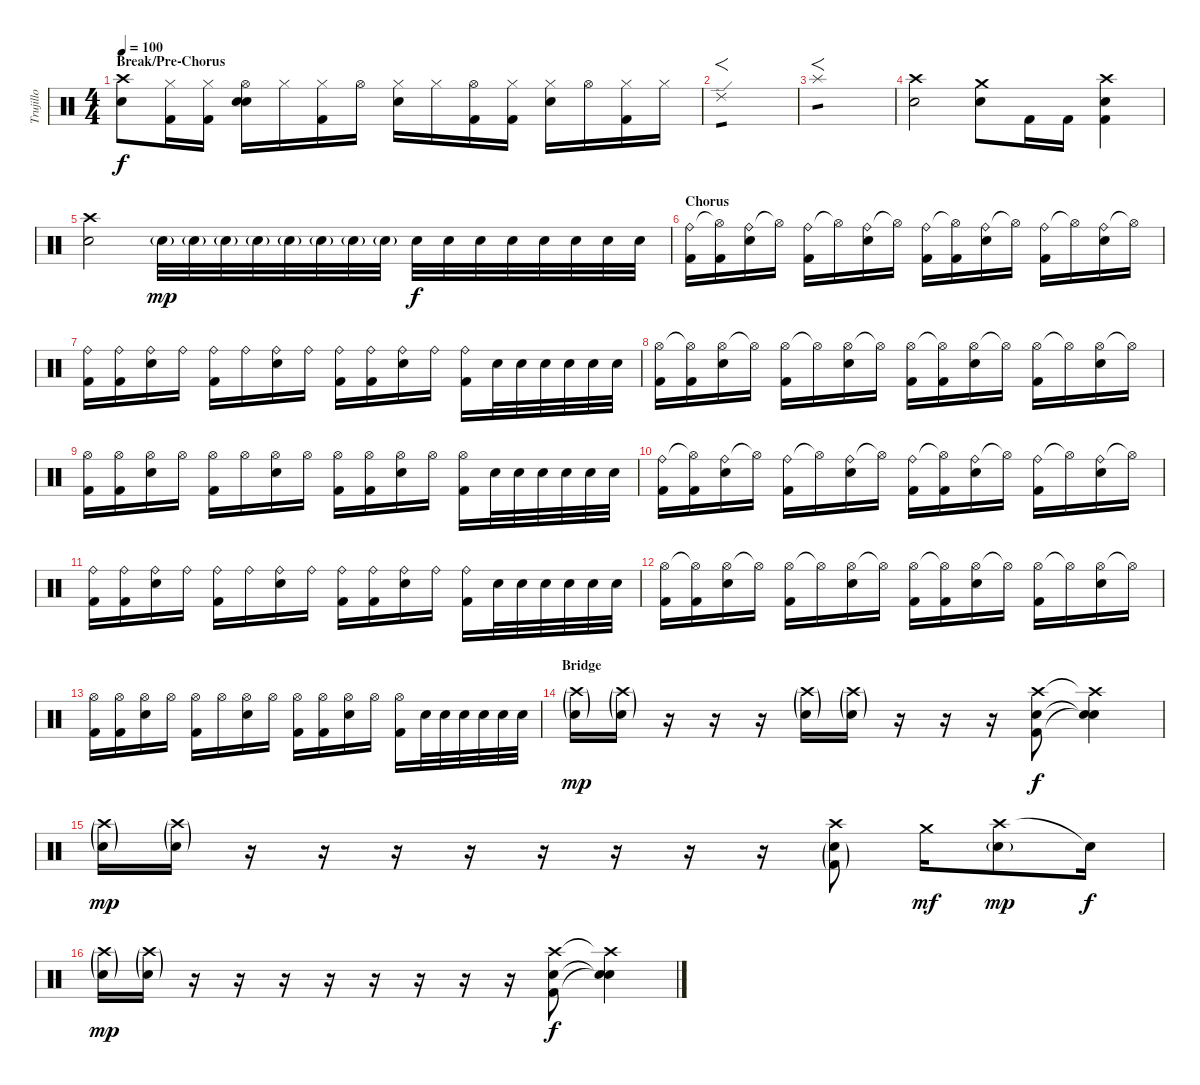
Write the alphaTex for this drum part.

\track ("Trujillo" "Trujillo") {instrument percussion}
\staff {score}
\articulation defaults
\ts (4 4)
\section ("" "Break/Pre-Chorus")
\tempo 100
\clef neutral
\ks c
("Crash high (hit)" "Electric Snare (hit)").8{dy f} ("Hi-Hat (closed)" "Kick (hit) 2").16 ("Hi-Hat (closed)" "Kick (hit) 2").16 ("Hi-Hat (open)" "Electric Snare (hit)" "Electric Snare (hit)").16 "Hi-Hat (closed)".16 ("Hi-Hat (closed)" "Kick (hit) 2").16 "Hi-Hat (open)".16 ("Hi-Hat (closed)" "Electric Snare (hit)").16 "Hi-Hat (closed)".16 ("Hi-Hat (open)" "Kick (hit) 2").16 ("Hi-Hat (closed)" "Kick (hit) 2").16 ("Hi-Hat (closed)" "Electric Snare (hit)").16 "Hi-Hat (open)".16 ("Hi-Hat (closed)" "Kick (hit) 2").16 "Hi-Hat (closed)".16 |
"Ride (edge) 2".1{f tp 1} |
"Splash (hit)".1{f tp 1} |
("Crash high (hit)" "Electric Snare (hit)").2 ("Crash medium (hit)" "Electric Snare (hit)").8 "Kick (hit) 2".16 "Kick (hit) 2".16 ("Crash high (hit)" "Electric Snare (hit)" "Kick (hit) 2").4 |
("Crash high (hit)" "Electric Snare (hit)").2 "Electric Snare (hit)"{g}.32{dy mp} "Electric Snare (hit)"{g}.32 "Electric Snare (hit)"{g}.32 "Electric Snare (hit)"{g}.32 "Electric Snare (hit)"{g}.32 "Electric Snare (hit)"{g}.32 "Electric Snare (hit)"{g}.32 "Electric Snare (hit)"{g}.32 "Electric Snare (hit)".32{dy f} "Electric Snare (hit)".32 "Electric Snare (hit)".32 "Electric Snare (hit)".32 "Electric Snare (hit)".32 "Electric Snare (hit)".32 "Electric Snare (hit)".32 "Electric Snare (hit)".32 |
\section ("" "Chorus")
("Ride (bell)" "Kick (hit) 2").16 ("Hi-Hat (open)"{t} "Kick (hit) 2").16 ("Ride (bell)" "Electric Snare (hit)").16 "Hi-Hat (open)"{t}.16 ("Ride (bell)" "Kick (hit) 2").16 "Hi-Hat (open)"{t}.16 ("Ride (bell)" "Electric Snare (hit)").16 "Hi-Hat (open)"{t}.16 ("Ride (bell)" "Kick (hit) 2").16 ("Hi-Hat (open)"{t} "Kick (hit) 2").16 ("Ride (bell)" "Electric Snare (hit)").16 "Hi-Hat (open)"{t}.16 ("Ride (bell)" "Kick (hit) 2").16 "Hi-Hat (open)"{t}.16 ("Ride (bell)" "Electric Snare (hit)").16 "Hi-Hat (open)"{t}.16 |
("Ride (bell)" "Kick (hit) 2").16 ("Ride (bell)" "Kick (hit) 2").16 ("Ride (bell)" "Electric Snare (hit)").16 "Ride (bell)".16 ("Ride (bell)" "Kick (hit) 2").16 "Ride (bell)".16 ("Ride (bell)" "Electric Snare (hit)").16 "Ride (bell)".16 ("Ride (bell)" "Kick (hit) 2").16 ("Ride (bell)" "Kick (hit) 2").16 ("Ride (bell)" "Electric Snare (hit)").16 "Ride (bell)".16 ("Ride (bell)" "Kick (hit) 2").16 "Electric Snare (hit)".32 "Electric Snare (hit)".32 "Electric Snare (hit)".32 "Electric Snare (hit)".32 "Electric Snare (hit)".32 "Electric Snare (hit)".32 |
("Hi-Hat (open)" "Kick (hit) 2").16 ("Hi-Hat (open)"{t} "Kick (hit) 2").16 ("Hi-Hat (open)" "Electric Snare (hit)").16 "Hi-Hat (open)"{t}.16 ("Hi-Hat (open)" "Kick (hit) 2").16 "Hi-Hat (open)"{t}.16 ("Hi-Hat (open)" "Electric Snare (hit)").16 "Hi-Hat (open)"{t}.16 ("Hi-Hat (open)" "Kick (hit) 2").16 ("Hi-Hat (open)"{t} "Kick (hit) 2").16 ("Hi-Hat (open)" "Electric Snare (hit)").16 "Hi-Hat (open)"{t}.16 ("Hi-Hat (open)" "Kick (hit) 2").16 "Hi-Hat (open)"{t}.16 ("Hi-Hat (open)" "Electric Snare (hit)").16 "Hi-Hat (open)"{t}.16 |
("Hi-Hat (open)" "Kick (hit) 2").16 ("Hi-Hat (open)" "Kick (hit) 2").16 ("Hi-Hat (open)" "Electric Snare (hit)").16 "Hi-Hat (open)".16 ("Hi-Hat (open)" "Kick (hit) 2").16 "Hi-Hat (open)".16 ("Hi-Hat (open)" "Electric Snare (hit)").16 "Hi-Hat (open)".16 ("Hi-Hat (open)" "Kick (hit) 2").16 ("Hi-Hat (open)" "Kick (hit) 2").16 ("Hi-Hat (open)" "Electric Snare (hit)").16 "Hi-Hat (open)".16 ("Hi-Hat (open)" "Kick (hit) 2").16 "Electric Snare (hit)".32 "Electric Snare (hit)".32 "Electric Snare (hit)".32 "Electric Snare (hit)".32 "Electric Snare (hit)".32 "Electric Snare (hit)".32 |
("Ride (bell)" "Kick (hit) 2").16 ("Hi-Hat (open)"{t} "Kick (hit) 2").16 ("Ride (bell)" "Electric Snare (hit)").16 "Hi-Hat (open)"{t}.16 ("Ride (bell)" "Kick (hit) 2").16 "Hi-Hat (open)"{t}.16 ("Ride (bell)" "Electric Snare (hit)").16 "Hi-Hat (open)"{t}.16 ("Ride (bell)" "Kick (hit) 2").16 ("Hi-Hat (open)"{t} "Kick (hit) 2").16 ("Ride (bell)" "Electric Snare (hit)").16 "Hi-Hat (open)"{t}.16 ("Ride (bell)" "Kick (hit) 2").16 "Hi-Hat (open)"{t}.16 ("Ride (bell)" "Electric Snare (hit)").16 "Hi-Hat (open)"{t}.16 |
("Ride (bell)" "Kick (hit) 2").16 ("Ride (bell)" "Kick (hit) 2").16 ("Ride (bell)" "Electric Snare (hit)").16 "Ride (bell)".16 ("Ride (bell)" "Kick (hit) 2").16 "Ride (bell)".16 ("Ride (bell)" "Electric Snare (hit)").16 "Ride (bell)".16 ("Ride (bell)" "Kick (hit) 2").16 ("Ride (bell)" "Kick (hit) 2").16 ("Ride (bell)" "Electric Snare (hit)").16 "Ride (bell)".16 ("Ride (bell)" "Kick (hit) 2").16 "Electric Snare (hit)".32 "Electric Snare (hit)".32 "Electric Snare (hit)".32 "Electric Snare (hit)".32 "Electric Snare (hit)".32 "Electric Snare (hit)".32 |
("Hi-Hat (open)" "Kick (hit) 2").16 ("Hi-Hat (open)"{t} "Kick (hit) 2").16 ("Hi-Hat (open)" "Electric Snare (hit)").16 "Hi-Hat (open)"{t}.16 ("Hi-Hat (open)" "Kick (hit) 2").16 "Hi-Hat (open)"{t}.16 ("Hi-Hat (open)" "Electric Snare (hit)").16 "Hi-Hat (open)"{t}.16 ("Hi-Hat (open)" "Kick (hit) 2").16 ("Hi-Hat (open)"{t} "Kick (hit) 2").16 ("Hi-Hat (open)" "Electric Snare (hit)").16 "Hi-Hat (open)"{t}.16 ("Hi-Hat (open)" "Kick (hit) 2").16 "Hi-Hat (open)"{t}.16 ("Hi-Hat (open)" "Electric Snare (hit)").16 "Hi-Hat (open)"{t}.16 |
("Hi-Hat (open)" "Kick (hit) 2").16 ("Hi-Hat (open)" "Kick (hit) 2").16 ("Hi-Hat (open)" "Electric Snare (hit)").16 "Hi-Hat (open)".16 ("Hi-Hat (open)" "Kick (hit) 2").16 "Hi-Hat (open)".16 ("Hi-Hat (open)" "Electric Snare (hit)").16 "Hi-Hat (open)".16 ("Hi-Hat (open)" "Kick (hit) 2").16 ("Hi-Hat (open)" "Kick (hit) 2").16 ("Hi-Hat (open)" "Electric Snare (hit)").16 "Hi-Hat (open)".16 ("Hi-Hat (open)" "Kick (hit) 2").16 "Electric Snare (hit)".32 "Electric Snare (hit)".32 "Electric Snare (hit)".32 "Electric Snare (hit)".32 "Electric Snare (hit)".32 "Electric Snare (hit)".32 |
\section ("" "Bridge")
("Crash high (hit)"{g} "Electric Snare (hit)"{g}).16{dy mp} ("Crash high (hit)"{g} "Electric Snare (hit)"{g}).16 r.16 r.16 r.16 ("Crash high (hit)"{g} "Electric Snare (hit)"{g}).16 ("Crash high (hit)"{g} "Electric Snare (hit)"{g}).16 r.16 r.16 r.16 ("Crash high (hit)" "Electric Snare (hit)" "Kick (hit) 2").8{dy f} ("Crash high (hit)"{t} "Electric Snare (hit)"{t} "Snare (hit)"{t}).4 |
("Crash high (hit)"{g} "Electric Snare (hit)"{g}).16{dy mp} ("Crash high (hit)"{g} "Electric Snare (hit)"{g}).16 r.16 r.16 r.16 r.16 r.16 r.16 r.16 r.16 ("Crash high (hit)" "Electric Snare (hit)"{g} "Kick (hit) 2"{g}).8 "Crash medium (hit)".16{dy mf} ("Crash high (hit)" "Electric Snare (hit)"{g}).8{dy mp} "Snare (hit)"{t}.16{dy f} |
("Crash high (hit)"{g} "Electric Snare (hit)"{g}).16{dy mp} ("Crash high (hit)"{g} "Electric Snare (hit)"{g}).16 r.16 r.16 r.16 r.16 r.16 r.16 r.16 r.16 ("Crash high (hit)" "Electric Snare (hit)" "Kick (hit) 2").8{dy f} ("Crash high (hit)"{t} "Electric Snare (hit)"{t} "Snare (hit)"{t}).4
